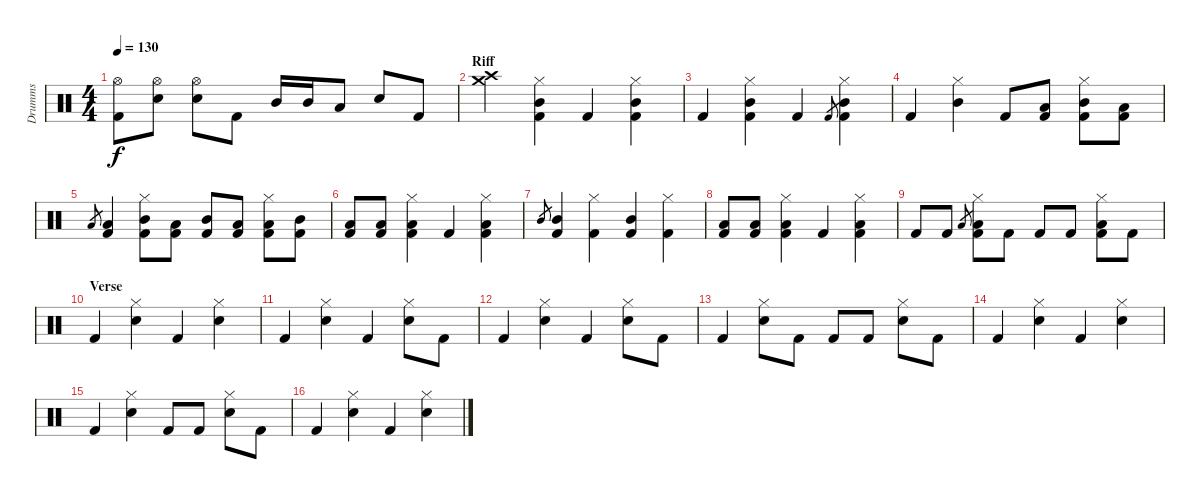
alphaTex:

\track ("Drumms" "Drumms") {instrument percussion}
\staff {score}
\articulation defaults
\ts (4 4)
\tempo 130
\clef neutral
\ks c
("Hi-Hat (open)" "Kick (hit) 2").8{dy f} ("Hi-Hat (open)" "Electric Snare (hit)").8 ("Hi-Hat (open)" "Electric Snare (hit)").8 "Kick (hit) 2".8 "Mid Tom (hit)".16 "Mid Tom (hit)".16 "Low Tom (hit)".8 "Electric Snare (hit)".8 "Kick (hit) 2".8 |
\section ("" "Riff")
("Crash medium (hit)" "Crash high (hit)").4 ("Hi-Hat (closed)" "Mid Tom (hit)" "Kick (hit) 2").4 "Kick (hit) 2".4 ("Hi-Hat (closed)" "Mid Tom (hit)" "Kick (hit) 2").4 |
"Kick (hit) 2".4 ("Hi-Hat (closed)" "Mid Tom (hit)" "Kick (hit) 2").4 "Kick (hit) 2".4 "Kick (hit) 2".8{gr} ("Hi-Hat (closed)" "Mid Tom (hit)" "Kick (hit) 2").4 |
"Kick (hit) 2".4 ("Hi-Hat (closed)" "Mid Tom (hit)").4 "Kick (hit) 2".8 ("Low Tom (hit)" "Kick (hit) 2").8 ("Hi-Hat (closed)" "Mid Tom (hit)" "Kick (hit) 2").8 ("Low Tom (hit)" "Kick (hit) 2").8 |
"Low Tom (hit)".8{gr} ("Low Tom (hit)" "Kick (hit) 2").4 ("Hi-Hat (closed)" "Mid Tom (hit)" "Kick (hit) 2").8 ("Low Tom (hit)" "Kick (hit) 2").8 ("Mid Tom (hit)" "Kick (hit) 2").8 ("Low Tom (hit)" "Kick (hit) 2").8 ("Hi-Hat (closed)" "Low Tom (hit)" "Kick (hit) 2").8 ("Mid Tom (hit)" "Kick (hit) 2").8 |
("Low Tom (hit)" "Kick (hit) 2").8 ("Low Tom (hit)" "Kick (hit) 2").8 ("Hi-Hat (closed)" "Low Tom (hit)" "Kick (hit) 2").4 "Kick (hit) 2".4 ("Hi-Hat (closed)" "Low Tom (hit)" "Kick (hit) 2").4 |
"Mid Tom (hit)".8{gr} ("Mid Tom (hit)" "Kick (hit) 2").4 ("Hi-Hat (closed)" "Kick (hit) 2").4 ("Mid Tom (hit)" "Kick (hit) 2").4 ("Hi-Hat (closed)" "Kick (hit) 2").4 |
("Low Tom (hit)" "Kick (hit) 2").8 ("Low Tom (hit)" "Kick (hit) 2").8 ("Hi-Hat (closed)" "Low Tom (hit)" "Kick (hit) 2").4 "Kick (hit) 2".4 ("Hi-Hat (closed)" "Low Tom (hit)" "Kick (hit) 2").4 |
"Kick (hit) 2".8 "Kick (hit) 2".8 "Low Tom (hit)".8{gr} ("Hi-Hat (closed)" "Low Tom (hit)" "Kick (hit) 2").8 "Kick (hit) 2".8 "Kick (hit) 2".8 "Kick (hit) 2".8 ("Hi-Hat (closed)" "Low Tom (hit)" "Kick (hit) 2").8 "Kick (hit) 2".8 |
\section ("" "Verse")
"Kick (hit) 2".4 ("Hi-Hat (closed)" "Electric Snare (hit)").4 "Kick (hit) 2".4 ("Hi-Hat (closed)" "Electric Snare (hit)").4 |
"Kick (hit) 2".4 ("Hi-Hat (closed)" "Electric Snare (hit)").4 "Kick (hit) 2".4 ("Hi-Hat (closed)" "Electric Snare (hit)").8 "Kick (hit) 2".8 |
"Kick (hit) 2".4 ("Hi-Hat (closed)" "Electric Snare (hit)").4 "Kick (hit) 2".4 ("Hi-Hat (closed)" "Electric Snare (hit)").8 "Kick (hit) 2".8 |
"Kick (hit) 2".4 ("Hi-Hat (closed)" "Electric Snare (hit)").8 "Kick (hit) 2".8 "Kick (hit) 2".8 "Kick (hit) 2".8 ("Hi-Hat (closed)" "Electric Snare (hit)").8 "Kick (hit) 2".8 |
"Kick (hit) 2".4 ("Hi-Hat (closed)" "Electric Snare (hit)").4 "Kick (hit) 2".4 ("Hi-Hat (closed)" "Electric Snare (hit)").4 |
"Kick (hit) 2".4 ("Hi-Hat (closed)" "Electric Snare (hit)").4 "Kick (hit) 2".8 "Kick (hit) 2".8 ("Hi-Hat (closed)" "Electric Snare (hit)").8 "Kick (hit) 2".8 |
"Kick (hit) 2".4 ("Hi-Hat (closed)" "Electric Snare (hit)").4 "Kick (hit) 2".4 ("Hi-Hat (closed)" "Electric Snare (hit)").4
